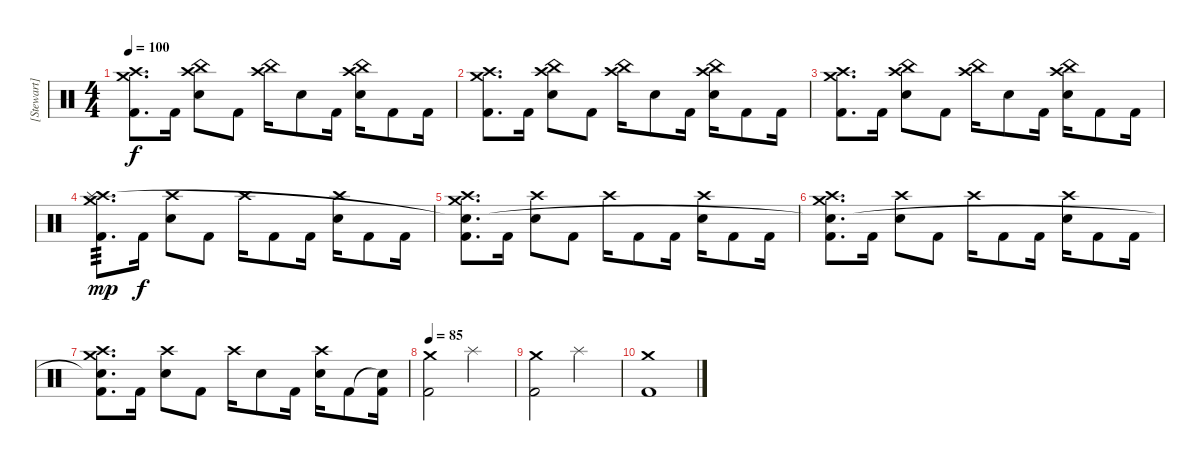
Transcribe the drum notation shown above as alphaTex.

\track ("[Stewart]" "[Stewart]") {instrument percussion}
\staff {score}
\articulation defaults
\ts (4 4)
\tempo 100
\clef neutral
\ks c
("Crash high (hit)" "Crash medium (hit)" "Kick (hit) 2").8{d dy f} "Kick (hit) 2".16 ("Crash high (hit)" "China (hit)" "Electric Snare (hit)").8 "Kick (hit) 2".8 ("Crash high (hit)" "China (hit)").16 "Electric Snare (hit)".8 "Kick (hit) 2".16 ("Crash high (hit)" "China (hit)" "Electric Snare (hit)").16 "Kick (hit) 2".8 "Kick (hit) 2".16 |
("Crash high (hit)" "Crash medium (hit)" "Kick (hit) 2").8{d} "Kick (hit) 2".16 ("Crash high (hit)" "China (hit)" "Electric Snare (hit)").8 "Kick (hit) 2".8 ("Crash high (hit)" "China (hit)").16 "Electric Snare (hit)".8 "Kick (hit) 2".16 ("Crash high (hit)" "China (hit)" "Electric Snare (hit)").16 "Kick (hit) 2".8 "Kick (hit) 2".16 |
("Crash high (hit)" "Crash medium (hit)" "Kick (hit) 2").8{d} "Kick (hit) 2".16 ("Crash high (hit)" "China (hit)" "Electric Snare (hit)").8 "Kick (hit) 2".8 ("Crash high (hit)" "China (hit)").16 "Electric Snare (hit)".8 "Kick (hit) 2".16 ("Crash high (hit)" "China (hit)" "Electric Snare (hit)").16 "Kick (hit) 2".8 "Kick (hit) 2".16 |
("Crash high (hit)" "Crash medium (hit)" "Splash (hit)" "Kick (hit) 2").8{d tp 3 dy mp} "Kick (hit) 2".16{dy f} ("Crash high (hit)" "Electric Snare (hit)").8 "Kick (hit) 2".8 "Crash high (hit)".16 "Kick (hit) 2".8 "Kick (hit) 2".16 ("Crash high (hit)" "Electric Snare (hit)").16 "Kick (hit) 2".8 "Kick (hit) 2".16 |
("Crash high (hit)" "Crash medium (hit)" "Snare (hit)"{t} "Kick (hit) 2").8{d} "Kick (hit) 2".16 ("Crash high (hit)" "Electric Snare (hit)").8 "Kick (hit) 2".8 "Crash high (hit)".16 "Kick (hit) 2".8 "Kick (hit) 2".16 ("Crash high (hit)" "Electric Snare (hit)").16 "Kick (hit) 2".8 "Kick (hit) 2".16 |
("Crash high (hit)" "Crash medium (hit)" "Snare (hit)"{t} "Kick (hit) 2").8{d} "Kick (hit) 2".16 ("Crash high (hit)" "Electric Snare (hit)").8 "Kick (hit) 2".8 "Crash high (hit)".16 "Kick (hit) 2".8 "Kick (hit) 2".16 ("Crash high (hit)" "Electric Snare (hit)").16 "Kick (hit) 2".8 "Kick (hit) 2".16 |
("Crash high (hit)" "Crash medium (hit)" "Snare (hit)"{t} "Kick (hit) 2").8{d} "Kick (hit) 2".16 ("Crash high (hit)" "Electric Snare (hit)").8 "Kick (hit) 2".8 "Crash high (hit)".16 "Electric Snare (hit)".8 "Kick (hit) 2".16 ("Crash high (hit)" "Electric Snare (hit)").16 "Kick (hit) 2".8 ("Snare (hit)"{t} "Kick (hit) 2").16 |
\tempo 85
("Crash medium (hit)" "Kick (hit) 2").2 "Splash (hit)".2 |
("Crash medium (hit)" "Kick (hit) 2").2 "Splash (hit)".2 |
("Crash medium (hit)" "Kick (hit) 2").1
